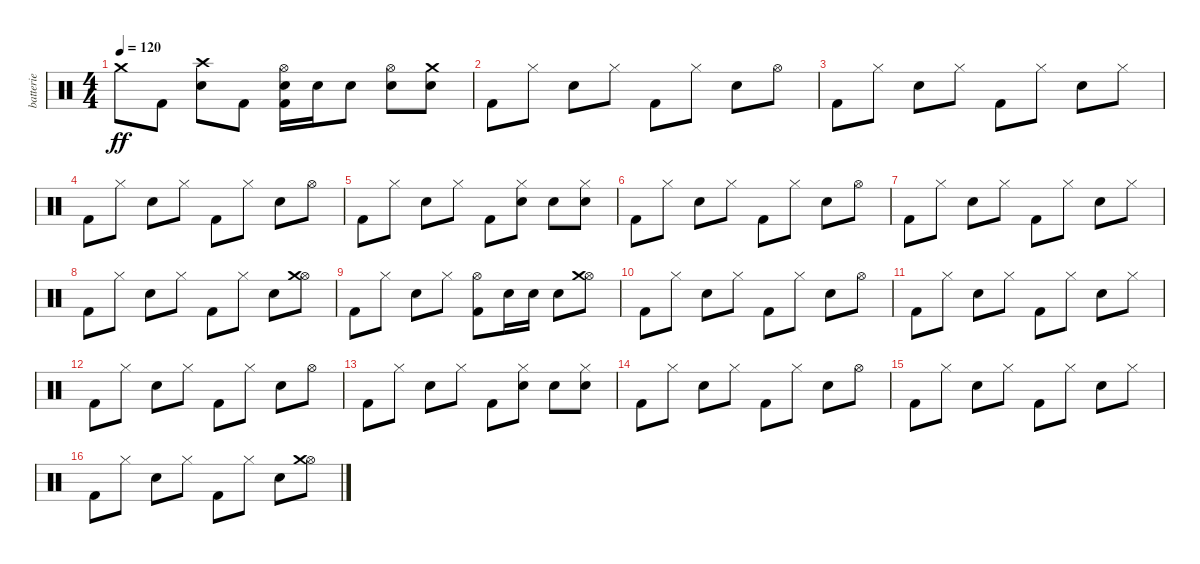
\track ("batterie" "batterie") {instrument percussion}
\staff {score}
\articulation defaults
\ts (4 4)
\tempo 120
\clef neutral
\ks c "Crash medium (hit)".8{dy ff} "Kick (hit) 2".8
("Electric Snare (hit)" "Crash high (hit)").8 "Kick (hit) 2".8 ("Kick (hit) 2" "Electric Snare (hit)" "Hi-Hat (open)").16 "Electric Snare (hit)".16 "Electric Snare (hit)".8 ("Electric Snare (hit)" "Hi-Hat (open)").8 ("Electric Snare (hit)" "Crash medium (hit)").8 |
"Kick (hit) 2".8 "Hi-Hat (closed)".8 "Electric Snare (hit)".8 "Hi-Hat (closed)".8 "Kick (hit) 2".8 "Hi-Hat (closed)".8 "Electric Snare (hit)".8 "Hi-Hat (open)".8 |
"Kick (hit) 2".8 "Hi-Hat (closed)".8 "Electric Snare (hit)".8 "Hi-Hat (closed)".8 "Kick (hit) 2".8 "Hi-Hat (closed)".8 "Electric Snare (hit)".8 "Hi-Hat (closed)".8 |
"Kick (hit) 2".8 "Hi-Hat (closed)".8 "Electric Snare (hit)".8 "Hi-Hat (closed)".8 "Kick (hit) 2".8 "Hi-Hat (closed)".8 "Electric Snare (hit)".8 "Hi-Hat (open)".8 |
"Kick (hit) 2".8 "Hi-Hat (closed)".8 "Electric Snare (hit)".8 "Hi-Hat (closed)".8 "Kick (hit) 2".8 ("Electric Snare (hit)" "Hi-Hat (closed)").8 "Electric Snare (hit)".8 ("Electric Snare (hit)" "Hi-Hat (closed)").8 |
"Kick (hit) 2".8 "Hi-Hat (closed)".8 "Electric Snare (hit)".8 "Hi-Hat (closed)".8 "Kick (hit) 2".8 "Hi-Hat (closed)".8 "Electric Snare (hit)".8 "Hi-Hat (open)".8 |
"Kick (hit) 2".8 "Hi-Hat (closed)".8 "Electric Snare (hit)".8 "Hi-Hat (closed)".8 "Kick (hit) 2".8 "Hi-Hat (closed)".8 "Electric Snare (hit)".8 "Hi-Hat (closed)".8 |
"Kick (hit) 2".8 "Hi-Hat (closed)".8 "Electric Snare (hit)".8 "Hi-Hat (closed)".8 "Kick (hit) 2".8 "Hi-Hat (closed)".8 "Electric Snare (hit)".8 ("Hi-Hat (open)" "Crash medium (hit)").8 |
"Kick (hit) 2".8 "Hi-Hat (closed)".8 "Electric Snare (hit)".8 "Hi-Hat (closed)".8 ("Kick (hit) 2" "Hi-Hat (open)").8 "Electric Snare (hit)".16 "Electric Snare (hit)".16 "Electric Snare (hit)".8 ("Hi-Hat (open)" "Crash medium (hit)").8 |
"Kick (hit) 2".8 "Hi-Hat (closed)".8 "Electric Snare (hit)".8 "Hi-Hat (closed)".8 "Kick (hit) 2".8 "Hi-Hat (closed)".8 "Electric Snare (hit)".8 "Hi-Hat (open)".8 |
"Kick (hit) 2".8 "Hi-Hat (closed)".8 "Electric Snare (hit)".8 "Hi-Hat (closed)".8 "Kick (hit) 2".8 "Hi-Hat (closed)".8 "Electric Snare (hit)".8 "Hi-Hat (closed)".8 |
"Kick (hit) 2".8 "Hi-Hat (closed)".8 "Electric Snare (hit)".8 "Hi-Hat (closed)".8 "Kick (hit) 2".8 "Hi-Hat (closed)".8 "Electric Snare (hit)".8 "Hi-Hat (open)".8 |
"Kick (hit) 2".8 "Hi-Hat (closed)".8 "Electric Snare (hit)".8 "Hi-Hat (closed)".8 "Kick (hit) 2".8 ("Electric Snare (hit)" "Hi-Hat (closed)").8 "Electric Snare (hit)".8 ("Electric Snare (hit)" "Hi-Hat (closed)").8 |
"Kick (hit) 2".8 "Hi-Hat (closed)".8 "Electric Snare (hit)".8 "Hi-Hat (closed)".8 "Kick (hit) 2".8 "Hi-Hat (closed)".8 "Electric Snare (hit)".8 "Hi-Hat (open)".8 |
"Kick (hit) 2".8 "Hi-Hat (closed)".8 "Electric Snare (hit)".8 "Hi-Hat (closed)".8 "Kick (hit) 2".8 "Hi-Hat (closed)".8 "Electric Snare (hit)".8 "Hi-Hat (closed)".8 |
"Kick (hit) 2".8 "Hi-Hat (closed)".8 "Electric Snare (hit)".8 "Hi-Hat (closed)".8 "Kick (hit) 2".8 "Hi-Hat (closed)".8 "Electric Snare (hit)".8 ("Hi-Hat (open)" "Crash medium (hit)").8
